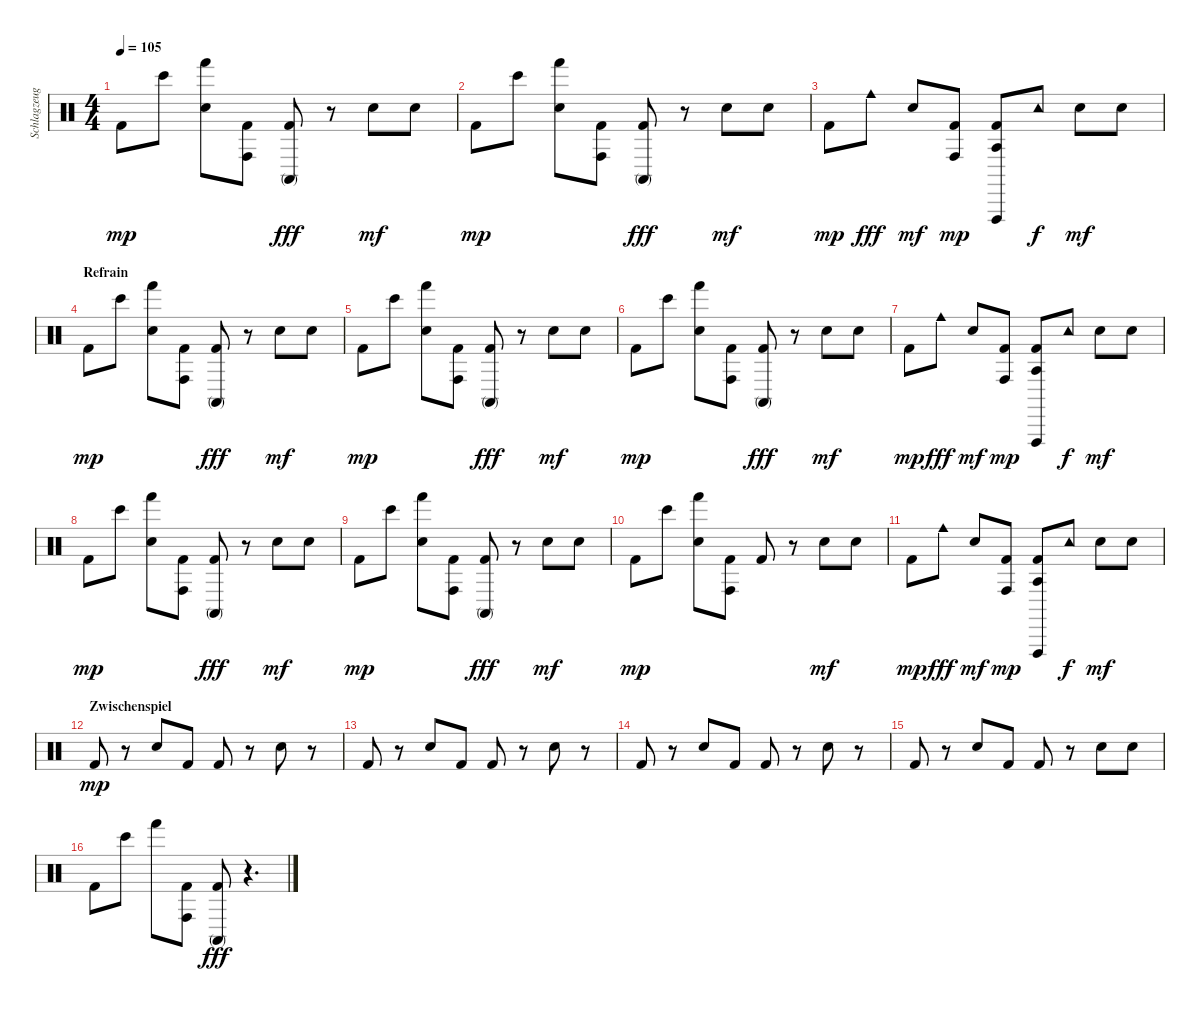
\track ("Schlagzeug" "Schlagzeug") {instrument percussion}
\staff {score}
\articulation defaults
\ts (4 4)
\tempo 105
\clef neutral
\ks c "Kick (hit) 2".8{dy mp} "Bongo High (hit)".8
("Hand Clap (hit)" "Hand (hit)").8 ("Kick (hit) 2" "Conga high (hit)").8 ("Kick (hit) 2" "Conga high (mute)").8{dy fff} r.8 "Hand Clap (hit)".8{dy mf} "Hand Clap (hit)".8 |
"Kick (hit) 2".8{dy mp} "Bongo High (hit)".8 ("Hand Clap (hit)" "Hand (hit)").8 ("Kick (hit) 2" "Conga high (hit)").8 ("Kick (hit) 2" "Conga high (mute)").8{dy fff} r.8 "Hand Clap (hit)".8{dy mf} "Hand Clap (hit)".8 |
"Kick (hit) 2".8{dy mp} "Cowbell medium (hit)".8{dy fff} "Hand Clap (hit)".8{dy mf} ("Kick (hit) 2" "Conga high (hit)").8{dy mp} ("Agogo tow (hit)" "Kick (hit) 2" "Vibraslap (hit)").8 "Tambourine (hit)".8{dy f} "Hand Clap (hit)".8{dy mf} "Hand Clap (hit)".8 |
\section ("" "Refrain")
"Kick (hit) 2".8{dy mp} "Bongo High (hit)".8 ("Hand Clap (hit)" "Hand (hit)").8 ("Kick (hit) 2" "Conga high (hit)").8 ("Kick (hit) 2" "Conga high (mute)").8{dy fff} r.8 "Hand Clap (hit)".8{dy mf} "Hand Clap (hit)".8 |
"Kick (hit) 2".8{dy mp} "Bongo High (hit)".8 ("Hand Clap (hit)" "Hand (hit)").8 ("Kick (hit) 2" "Conga high (hit)").8 ("Kick (hit) 2" "Conga high (mute)").8{dy fff} r.8 "Hand Clap (hit)".8{dy mf} "Hand Clap (hit)".8 |
"Kick (hit) 2".8{dy mp} "Bongo High (hit)".8 ("Hand Clap (hit)" "Hand (hit)").8 ("Kick (hit) 2" "Conga high (hit)").8 ("Kick (hit) 2" "Conga high (mute)").8{dy fff} r.8 "Hand Clap (hit)".8{dy mf} "Hand Clap (hit)".8 |
"Kick (hit) 2".8{dy mp} "Cowbell medium (hit)".8{dy fff} "Hand Clap (hit)".8{dy mf} ("Kick (hit) 2" "Conga high (hit)").8{dy mp} ("Agogo tow (hit)" "Vibraslap (hit)" "Kick (hit) 2").8 "Tambourine (hit)".8{dy f} "Hand Clap (hit)".8{dy mf} "Hand Clap (hit)".8 |
"Kick (hit) 2".8{dy mp} "Bongo High (hit)".8 ("Hand Clap (hit)" "Hand (hit)").8 ("Kick (hit) 2" "Conga high (hit)").8 ("Kick (hit) 2" "Conga high (mute)").8{dy fff} r.8 "Hand Clap (hit)".8{dy mf} "Hand Clap (hit)".8 |
"Kick (hit) 2".8{dy mp} "Bongo High (hit)".8 ("Hand Clap (hit)" "Hand (hit)").8 ("Kick (hit) 2" "Conga high (hit)").8 ("Kick (hit) 2" "Conga high (mute)").8{dy fff} r.8 "Hand Clap (hit)".8{dy mf} "Hand Clap (hit)".8 |
"Kick (hit) 2".8{dy mp} "Bongo High (hit)".8 ("Hand Clap (hit)" "Hand (hit)").8 ("Kick (hit) 2" "Conga high (hit)").8 "Kick (hit) 2".8 r.8 "Hand Clap (hit)".8{dy mf} "Hand Clap (hit)".8 |
"Kick (hit) 2".8{dy mp} "Cowbell medium (hit)".8{dy fff} "Hand Clap (hit)".8{dy mf} ("Kick (hit) 2" "Conga high (hit)").8{dy mp} ("Agogo tow (hit)" "Kick (hit) 2" "Vibraslap (hit)").8 "Tambourine (hit)".8{dy f} "Hand Clap (hit)".8{dy mf} "Hand Clap (hit)".8 |
\section ("" "Zwischenspiel")
"Kick (hit) 2".8{dy mp} r.8 "Hand Clap (hit)".8 "Kick (hit) 2".8 "Kick (hit) 2".8 r.8 "Hand Clap (hit)".8 r.8 |
"Kick (hit) 2".8 r.8 "Hand Clap (hit)".8 "Kick (hit) 2".8 "Kick (hit) 2".8 r.8 "Hand Clap (hit)".8 r.8 |
"Kick (hit) 2".8 r.8 "Hand Clap (hit)".8 "Kick (hit) 2".8 "Kick (hit) 2".8 r.8 "Hand Clap (hit)".8 r.8 |
"Kick (hit) 2".8 r.8 "Hand Clap (hit)".8 "Kick (hit) 2".8 "Kick (hit) 2".8 r.8 "Hand Clap (hit)".8 "Hand Clap (hit)".8 |
"Kick (hit) 2".8 "Bongo High (hit)".8 "Hand (hit)".8 ("Kick (hit) 2" "Conga high (hit)").8 ("Kick (hit) 2" "Conga high (mute)").8{dy fff} r.4{d}
